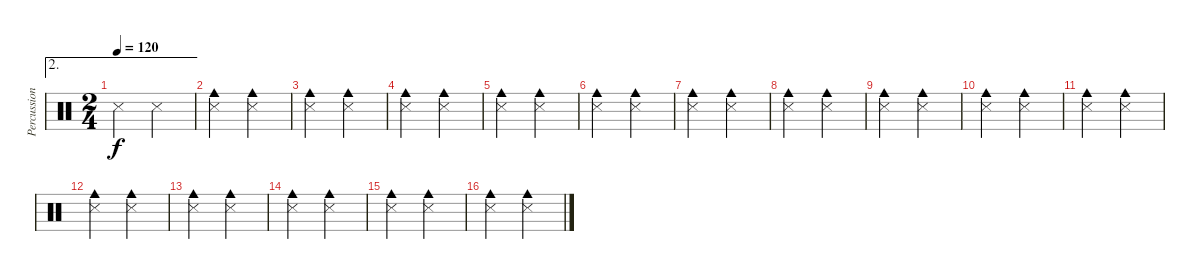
\track ("Percussion" "Percussion") {instrument percussion}
\staff {score}
\articulation defaults
\ae 2
\ts (2 4)
\tempo 120
\clef neutral
\ks aminor "Snare (side stick) 3".4{dy f} "Snare (side stick) 3".4
|
("Snare (side stick) 3" "Cowbell medium (hit)").4 ("Snare (side stick) 3" "Cowbell medium (hit)").4 |
("Snare (side stick) 3" "Cowbell medium (hit)").4 ("Snare (side stick) 3" "Cowbell medium (hit)").4 |
("Snare (side stick) 3" "Cowbell medium (hit)").4 ("Snare (side stick) 3" "Cowbell medium (hit)").4 |
("Snare (side stick) 3" "Cowbell medium (hit)").4 ("Snare (side stick) 3" "Cowbell medium (hit)").4 |
("Snare (side stick) 3" "Cowbell medium (hit)").4 ("Snare (side stick) 3" "Cowbell medium (hit)").4 |
("Snare (side stick) 3" "Cowbell medium (hit)").4 ("Snare (side stick) 3" "Cowbell medium (hit)").4 |
("Snare (side stick) 3" "Cowbell medium (hit)").4 ("Snare (side stick) 3" "Cowbell medium (hit)").4 |
("Snare (side stick) 3" "Cowbell medium (hit)").4 ("Snare (side stick) 3" "Cowbell medium (hit)").4 |
("Snare (side stick) 3" "Cowbell medium (hit)").4 ("Snare (side stick) 3" "Cowbell medium (hit)").4 |
("Snare (side stick) 3" "Cowbell medium (hit)").4 ("Snare (side stick) 3" "Cowbell medium (hit)").4 |
("Snare (side stick) 3" "Cowbell medium (hit)").4 ("Snare (side stick) 3" "Cowbell medium (hit)").4 |
("Snare (side stick) 3" "Cowbell medium (hit)").4 ("Snare (side stick) 3" "Cowbell medium (hit)").4 |
("Snare (side stick) 3" "Cowbell medium (hit)").4 ("Snare (side stick) 3" "Cowbell medium (hit)").4 |
("Snare (side stick) 3" "Cowbell medium (hit)").4 ("Snare (side stick) 3" "Cowbell medium (hit)").4 |
("Snare (side stick) 3" "Cowbell medium (hit)").4 ("Snare (side stick) 3" "Cowbell medium (hit)").4
